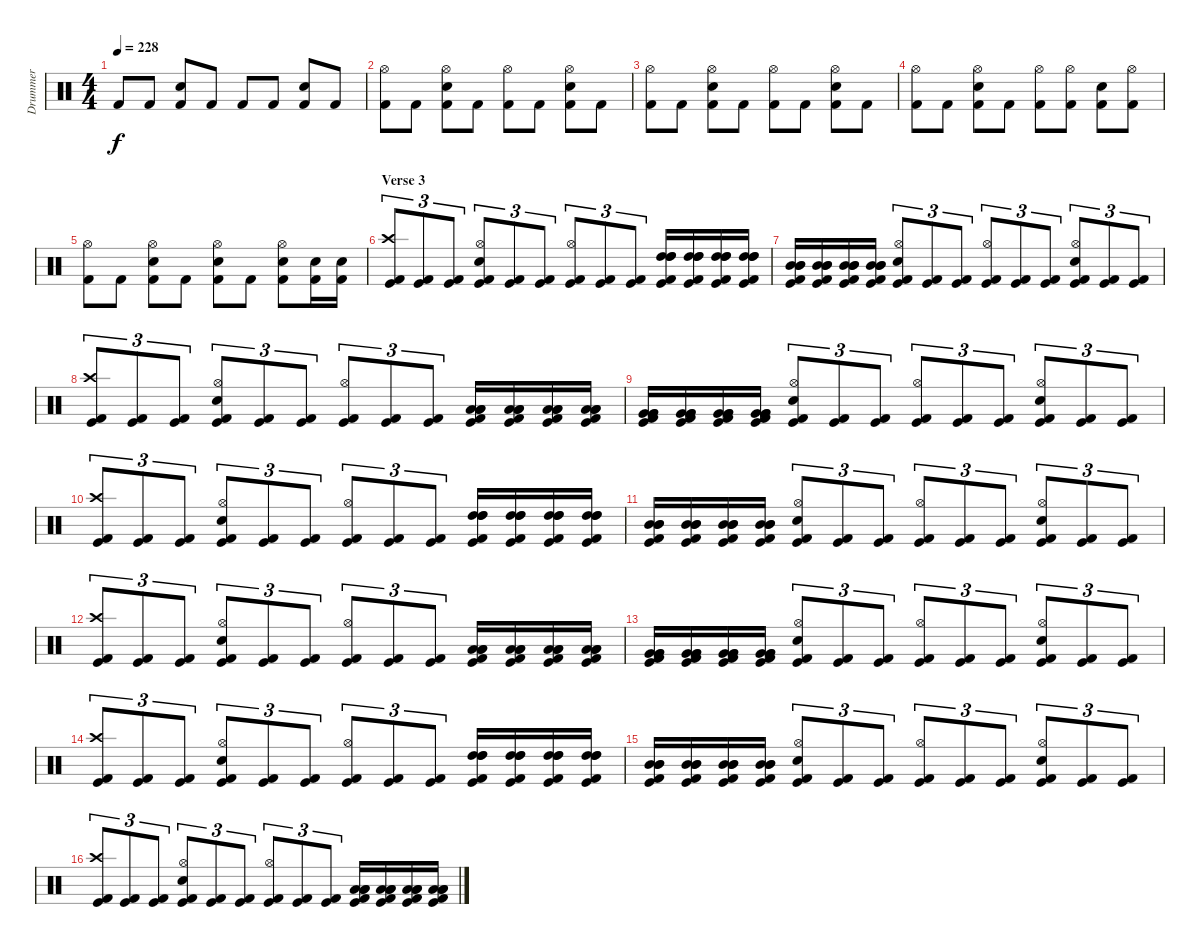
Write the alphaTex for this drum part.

\track ("Drummer" "Drummer") {instrument percussion}
\staff {score}
\articulation defaults
\ts (4 4)
\tempo 228
\clef neutral
\ks c "Kick (hit) 2".8{dy f} "Kick (hit) 2".8
("Snare (hit) 2" "Kick (hit) 2").8 "Kick (hit) 2".8 "Kick (hit) 2".8 "Kick (hit) 2".8 ("Snare (hit) 2" "Kick (hit) 2").8 "Kick (hit) 2".8 |
("Hi-Hat (open)" "Kick (hit) 2").8 "Kick (hit) 2".8 ("Hi-Hat (open)" "Snare (hit) 2" "Kick (hit) 2").8 "Kick (hit) 2".8 ("Hi-Hat (open)" "Kick (hit) 2").8 "Kick (hit) 2".8 ("Hi-Hat (open)" "Snare (hit) 2" "Kick (hit) 2").8 "Kick (hit) 2".8 |
("Hi-Hat (open)" "Kick (hit) 2").8 "Kick (hit) 2".8 ("Hi-Hat (open)" "Snare (hit) 2" "Kick (hit) 2").8 "Kick (hit) 2".8 ("Hi-Hat (open)" "Kick (hit) 2").8 "Kick (hit) 2".8 ("Hi-Hat (open)" "Snare (hit) 2" "Kick (hit) 2").8 "Kick (hit) 2".8 |
("Hi-Hat (open)" "Kick (hit) 2").8 "Kick (hit) 2".8 ("Hi-Hat (open)" "Snare (hit) 2" "Kick (hit) 2").8 "Kick (hit) 2".8 ("Hi-Hat (open)" "Kick (hit) 2").8 ("Hi-Hat (open)" "Kick (hit) 2").8 ("Snare (hit) 2" "Kick (hit) 2").8 ("Hi-Hat (open)" "Kick (hit) 2").8 |
("Hi-Hat (open)" "Kick (hit) 2").8 "Kick (hit) 2".8 ("Hi-Hat (open)" "Snare (hit) 2" "Kick (hit) 2").8 "Kick (hit) 2".8 ("Hi-Hat (open)" "Snare (hit) 2" "Kick (hit) 2").8 "Kick (hit) 2".8 ("Hi-Hat (open)" "Snare (hit) 2" "Kick (hit) 2").8 ("Snare (hit) 2" "Kick (hit) 2").16 ("Snare (hit) 2" "Kick (hit) 2").16 |
\section ("" "Verse 3")
("Crash high (hit)" "Kick (hit)" "Kick (hit) 2").8{tu (3 2)} ("Kick (hit)" "Kick (hit) 2").8{tu (3 2)} ("Kick (hit)" "Kick (hit) 2").8{tu (3 2)} ("Hi-Hat (open)" "Snare (hit) 2" "Kick (hit)" "Kick (hit) 2").8{tu (3 2)} ("Kick (hit)" "Kick (hit) 2").8{tu (3 2)} ("Kick (hit)" "Kick (hit) 2").8{tu (3 2)} ("Hi-Hat (open)" "Kick (hit)" "Kick (hit) 2").8{tu (3 2)} ("Kick (hit)" "Kick (hit) 2").8{tu (3 2)} ("Kick (hit)" "Kick (hit) 2").8{tu (3 2)} ("High Tom (hit)" "High Tom (hit)" "High Tom (hit)" "Kick (hit)" "Kick (hit) 2").16 ("High Tom (hit)" "High Tom (hit)" "High Tom (hit)" "Kick (hit)" "Kick (hit) 2").16 ("High Tom (hit)" "High Tom (hit)" "High Tom (hit)" "Kick (hit)" "Kick (hit) 2").16 ("High Tom (hit)" "High Tom (hit)" "High Tom (hit)" "Kick (hit)" "Kick (hit) 2").16 |
("Mid Tom (hit)" "Mid Tom (hit)" "Mid Tom (hit)" "Kick (hit)" "Kick (hit) 2").16 ("Mid Tom (hit)" "Mid Tom (hit)" "Mid Tom (hit)" "Kick (hit)" "Kick (hit) 2").16 ("Mid Tom (hit)" "Mid Tom (hit)" "Mid Tom (hit)" "Kick (hit)" "Kick (hit) 2").16 ("Mid Tom (hit)" "Mid Tom (hit)" "Mid Tom (hit)" "Kick (hit)" "Kick (hit) 2").16 ("Hi-Hat (open)" "Snare (hit) 2" "Kick (hit)" "Kick (hit) 2").8{tu (3 2)} ("Kick (hit)" "Kick (hit) 2").8{tu (3 2)} ("Kick (hit)" "Kick (hit) 2").8{tu (3 2)} ("Hi-Hat (open)" "Kick (hit)" "Kick (hit) 2").8{tu (3 2)} ("Kick (hit)" "Kick (hit) 2").8{tu (3 2)} ("Kick (hit)" "Kick (hit) 2").8{tu (3 2)} ("Hi-Hat (open)" "Snare (hit) 2" "Kick (hit)" "Kick (hit) 2").8{tu (3 2)} ("Kick (hit)" "Kick (hit) 2").8{tu (3 2)} ("Kick (hit)" "Kick (hit) 2").8{tu (3 2)} |
("Crash high (hit)" "Kick (hit)" "Kick (hit) 2").8{tu (3 2)} ("Kick (hit)" "Kick (hit) 2").8{tu (3 2)} ("Kick (hit)" "Kick (hit) 2").8{tu (3 2)} ("Hi-Hat (open)" "Snare (hit) 2" "Kick (hit)" "Kick (hit) 2").8{tu (3 2)} ("Kick (hit)" "Kick (hit) 2").8{tu (3 2)} ("Kick (hit)" "Kick (hit) 2").8{tu (3 2)} ("Hi-Hat (open)" "Kick (hit)" "Kick (hit) 2").8{tu (3 2)} ("Kick (hit)" "Kick (hit) 2").8{tu (3 2)} ("Kick (hit)" "Kick (hit) 2").8{tu (3 2)} ("Low Tom (hit)" "Low Tom (hit)" "Low Tom (hit)" "Kick (hit)" "Kick (hit) 2").16 ("Low Tom (hit)" "Low Tom (hit)" "Low Tom (hit)" "Kick (hit)" "Kick (hit) 2").16 ("Low Tom (hit)" "Low Tom (hit)" "Low Tom (hit)" "Kick (hit)" "Kick (hit) 2").16 ("Low Tom (hit)" "Low Tom (hit)" "Low Tom (hit)" "Kick (hit)" "Kick (hit) 2").16 |
("Very Low Tom (hit)" "Very Low Tom (hit)" "Very Low Tom (hit)" "Kick (hit)" "Kick (hit) 2").16 ("Very Low Tom (hit)" "Very Low Tom (hit)" "Very Low Tom (hit)" "Kick (hit)" "Kick (hit) 2").16 ("Very Low Tom (hit)" "Very Low Tom (hit)" "Very Low Tom (hit)" "Kick (hit)" "Kick (hit) 2").16 ("Very Low Tom (hit)" "Very Low Tom (hit)" "Very Low Tom (hit)" "Kick (hit)" "Kick (hit) 2").16 ("Hi-Hat (open)" "Snare (hit) 2" "Kick (hit)" "Kick (hit) 2").8{tu (3 2)} ("Kick (hit)" "Kick (hit) 2").8{tu (3 2)} ("Kick (hit)" "Kick (hit) 2").8{tu (3 2)} ("Hi-Hat (open)" "Kick (hit)" "Kick (hit) 2").8{tu (3 2)} ("Kick (hit)" "Kick (hit) 2").8{tu (3 2)} ("Kick (hit)" "Kick (hit) 2").8{tu (3 2)} ("Hi-Hat (open)" "Snare (hit) 2" "Kick (hit)" "Kick (hit) 2").8{tu (3 2)} ("Kick (hit)" "Kick (hit) 2").8{tu (3 2)} ("Kick (hit)" "Kick (hit) 2").8{tu (3 2)} |
("Crash high (hit)" "Kick (hit)" "Kick (hit) 2").8{tu (3 2)} ("Kick (hit)" "Kick (hit) 2").8{tu (3 2)} ("Kick (hit)" "Kick (hit) 2").8{tu (3 2)} ("Hi-Hat (open)" "Snare (hit) 2" "Kick (hit)" "Kick (hit) 2").8{tu (3 2)} ("Kick (hit)" "Kick (hit) 2").8{tu (3 2)} ("Kick (hit)" "Kick (hit) 2").8{tu (3 2)} ("Hi-Hat (open)" "Kick (hit)" "Kick (hit) 2").8{tu (3 2)} ("Kick (hit)" "Kick (hit) 2").8{tu (3 2)} ("Kick (hit)" "Kick (hit) 2").8{tu (3 2)} ("High Tom (hit)" "High Tom (hit)" "High Tom (hit)" "Kick (hit)" "Kick (hit) 2").16 ("High Tom (hit)" "High Tom (hit)" "High Tom (hit)" "Kick (hit)" "Kick (hit) 2").16 ("High Tom (hit)" "High Tom (hit)" "High Tom (hit)" "Kick (hit)" "Kick (hit) 2").16 ("High Tom (hit)" "High Tom (hit)" "High Tom (hit)" "Kick (hit)" "Kick (hit) 2").16 |
("Mid Tom (hit)" "Mid Tom (hit)" "Mid Tom (hit)" "Kick (hit)" "Kick (hit) 2").16 ("Mid Tom (hit)" "Mid Tom (hit)" "Mid Tom (hit)" "Kick (hit)" "Kick (hit) 2").16 ("Mid Tom (hit)" "Mid Tom (hit)" "Mid Tom (hit)" "Kick (hit)" "Kick (hit) 2").16 ("Mid Tom (hit)" "Mid Tom (hit)" "Mid Tom (hit)" "Kick (hit)" "Kick (hit) 2").16 ("Hi-Hat (open)" "Snare (hit) 2" "Kick (hit)" "Kick (hit) 2").8{tu (3 2)} ("Kick (hit)" "Kick (hit) 2").8{tu (3 2)} ("Kick (hit)" "Kick (hit) 2").8{tu (3 2)} ("Hi-Hat (open)" "Kick (hit)" "Kick (hit) 2").8{tu (3 2)} ("Kick (hit)" "Kick (hit) 2").8{tu (3 2)} ("Kick (hit)" "Kick (hit) 2").8{tu (3 2)} ("Hi-Hat (open)" "Snare (hit) 2" "Kick (hit)" "Kick (hit) 2").8{tu (3 2)} ("Kick (hit)" "Kick (hit) 2").8{tu (3 2)} ("Kick (hit)" "Kick (hit) 2").8{tu (3 2)} |
("Crash high (hit)" "Kick (hit)" "Kick (hit) 2").8{tu (3 2)} ("Kick (hit)" "Kick (hit) 2").8{tu (3 2)} ("Kick (hit)" "Kick (hit) 2").8{tu (3 2)} ("Hi-Hat (open)" "Snare (hit) 2" "Kick (hit)" "Kick (hit) 2").8{tu (3 2)} ("Kick (hit)" "Kick (hit) 2").8{tu (3 2)} ("Kick (hit)" "Kick (hit) 2").8{tu (3 2)} ("Hi-Hat (open)" "Kick (hit)" "Kick (hit) 2").8{tu (3 2)} ("Kick (hit)" "Kick (hit) 2").8{tu (3 2)} ("Kick (hit)" "Kick (hit) 2").8{tu (3 2)} ("Low Tom (hit)" "Low Tom (hit)" "Low Tom (hit)" "Kick (hit)" "Kick (hit) 2").16 ("Low Tom (hit)" "Low Tom (hit)" "Low Tom (hit)" "Kick (hit)" "Kick (hit) 2").16 ("Low Tom (hit)" "Low Tom (hit)" "Low Tom (hit)" "Kick (hit)" "Kick (hit) 2").16 ("Low Tom (hit)" "Low Tom (hit)" "Low Tom (hit)" "Kick (hit)" "Kick (hit) 2").16 |
("Very Low Tom (hit)" "Very Low Tom (hit)" "Very Low Tom (hit)" "Kick (hit)" "Kick (hit) 2").16 ("Very Low Tom (hit)" "Very Low Tom (hit)" "Very Low Tom (hit)" "Kick (hit)" "Kick (hit) 2").16 ("Very Low Tom (hit)" "Very Low Tom (hit)" "Very Low Tom (hit)" "Kick (hit)" "Kick (hit) 2").16 ("Very Low Tom (hit)" "Very Low Tom (hit)" "Very Low Tom (hit)" "Kick (hit)" "Kick (hit) 2").16 ("Hi-Hat (open)" "Snare (hit) 2" "Kick (hit)" "Kick (hit) 2").8{tu (3 2)} ("Kick (hit)" "Kick (hit) 2").8{tu (3 2)} ("Kick (hit)" "Kick (hit) 2").8{tu (3 2)} ("Hi-Hat (open)" "Kick (hit)" "Kick (hit) 2").8{tu (3 2)} ("Kick (hit)" "Kick (hit) 2").8{tu (3 2)} ("Kick (hit)" "Kick (hit) 2").8{tu (3 2)} ("Hi-Hat (open)" "Snare (hit) 2" "Kick (hit)" "Kick (hit) 2").8{tu (3 2)} ("Kick (hit)" "Kick (hit) 2").8{tu (3 2)} ("Kick (hit)" "Kick (hit) 2").8{tu (3 2)} |
("Crash high (hit)" "Kick (hit)" "Kick (hit) 2").8{tu (3 2)} ("Kick (hit)" "Kick (hit) 2").8{tu (3 2)} ("Kick (hit)" "Kick (hit) 2").8{tu (3 2)} ("Hi-Hat (open)" "Snare (hit) 2" "Kick (hit)" "Kick (hit) 2").8{tu (3 2)} ("Kick (hit)" "Kick (hit) 2").8{tu (3 2)} ("Kick (hit)" "Kick (hit) 2").8{tu (3 2)} ("Hi-Hat (open)" "Kick (hit)" "Kick (hit) 2").8{tu (3 2)} ("Kick (hit)" "Kick (hit) 2").8{tu (3 2)} ("Kick (hit)" "Kick (hit) 2").8{tu (3 2)} ("High Tom (hit)" "High Tom (hit)" "High Tom (hit)" "Kick (hit)" "Kick (hit) 2").16 ("High Tom (hit)" "High Tom (hit)" "High Tom (hit)" "Kick (hit)" "Kick (hit) 2").16 ("High Tom (hit)" "High Tom (hit)" "High Tom (hit)" "Kick (hit)" "Kick (hit) 2").16 ("High Tom (hit)" "High Tom (hit)" "High Tom (hit)" "Kick (hit)" "Kick (hit) 2").16 |
("Mid Tom (hit)" "Mid Tom (hit)" "Mid Tom (hit)" "Kick (hit)" "Kick (hit) 2").16 ("Mid Tom (hit)" "Mid Tom (hit)" "Mid Tom (hit)" "Kick (hit)" "Kick (hit) 2").16 ("Mid Tom (hit)" "Mid Tom (hit)" "Mid Tom (hit)" "Kick (hit)" "Kick (hit) 2").16 ("Mid Tom (hit)" "Mid Tom (hit)" "Mid Tom (hit)" "Kick (hit)" "Kick (hit) 2").16 ("Hi-Hat (open)" "Snare (hit) 2" "Kick (hit)" "Kick (hit) 2").8{tu (3 2)} ("Kick (hit)" "Kick (hit) 2").8{tu (3 2)} ("Kick (hit)" "Kick (hit) 2").8{tu (3 2)} ("Hi-Hat (open)" "Kick (hit)" "Kick (hit) 2").8{tu (3 2)} ("Kick (hit)" "Kick (hit) 2").8{tu (3 2)} ("Kick (hit)" "Kick (hit) 2").8{tu (3 2)} ("Hi-Hat (open)" "Snare (hit) 2" "Kick (hit)" "Kick (hit) 2").8{tu (3 2)} ("Kick (hit)" "Kick (hit) 2").8{tu (3 2)} ("Kick (hit)" "Kick (hit) 2").8{tu (3 2)} |
("Crash high (hit)" "Kick (hit)" "Kick (hit) 2").8{tu (3 2)} ("Kick (hit)" "Kick (hit) 2").8{tu (3 2)} ("Kick (hit)" "Kick (hit) 2").8{tu (3 2)} ("Hi-Hat (open)" "Snare (hit) 2" "Kick (hit)" "Kick (hit) 2").8{tu (3 2)} ("Kick (hit)" "Kick (hit) 2").8{tu (3 2)} ("Kick (hit)" "Kick (hit) 2").8{tu (3 2)} ("Hi-Hat (open)" "Kick (hit)" "Kick (hit) 2").8{tu (3 2)} ("Kick (hit)" "Kick (hit) 2").8{tu (3 2)} ("Kick (hit)" "Kick (hit) 2").8{tu (3 2)} ("Low Tom (hit)" "Low Tom (hit)" "Low Tom (hit)" "Kick (hit)" "Kick (hit) 2").16 ("Low Tom (hit)" "Low Tom (hit)" "Low Tom (hit)" "Kick (hit)" "Kick (hit) 2").16 ("Low Tom (hit)" "Low Tom (hit)" "Low Tom (hit)" "Kick (hit)" "Kick (hit) 2").16 ("Low Tom (hit)" "Low Tom (hit)" "Low Tom (hit)" "Kick (hit)" "Kick (hit) 2").16
